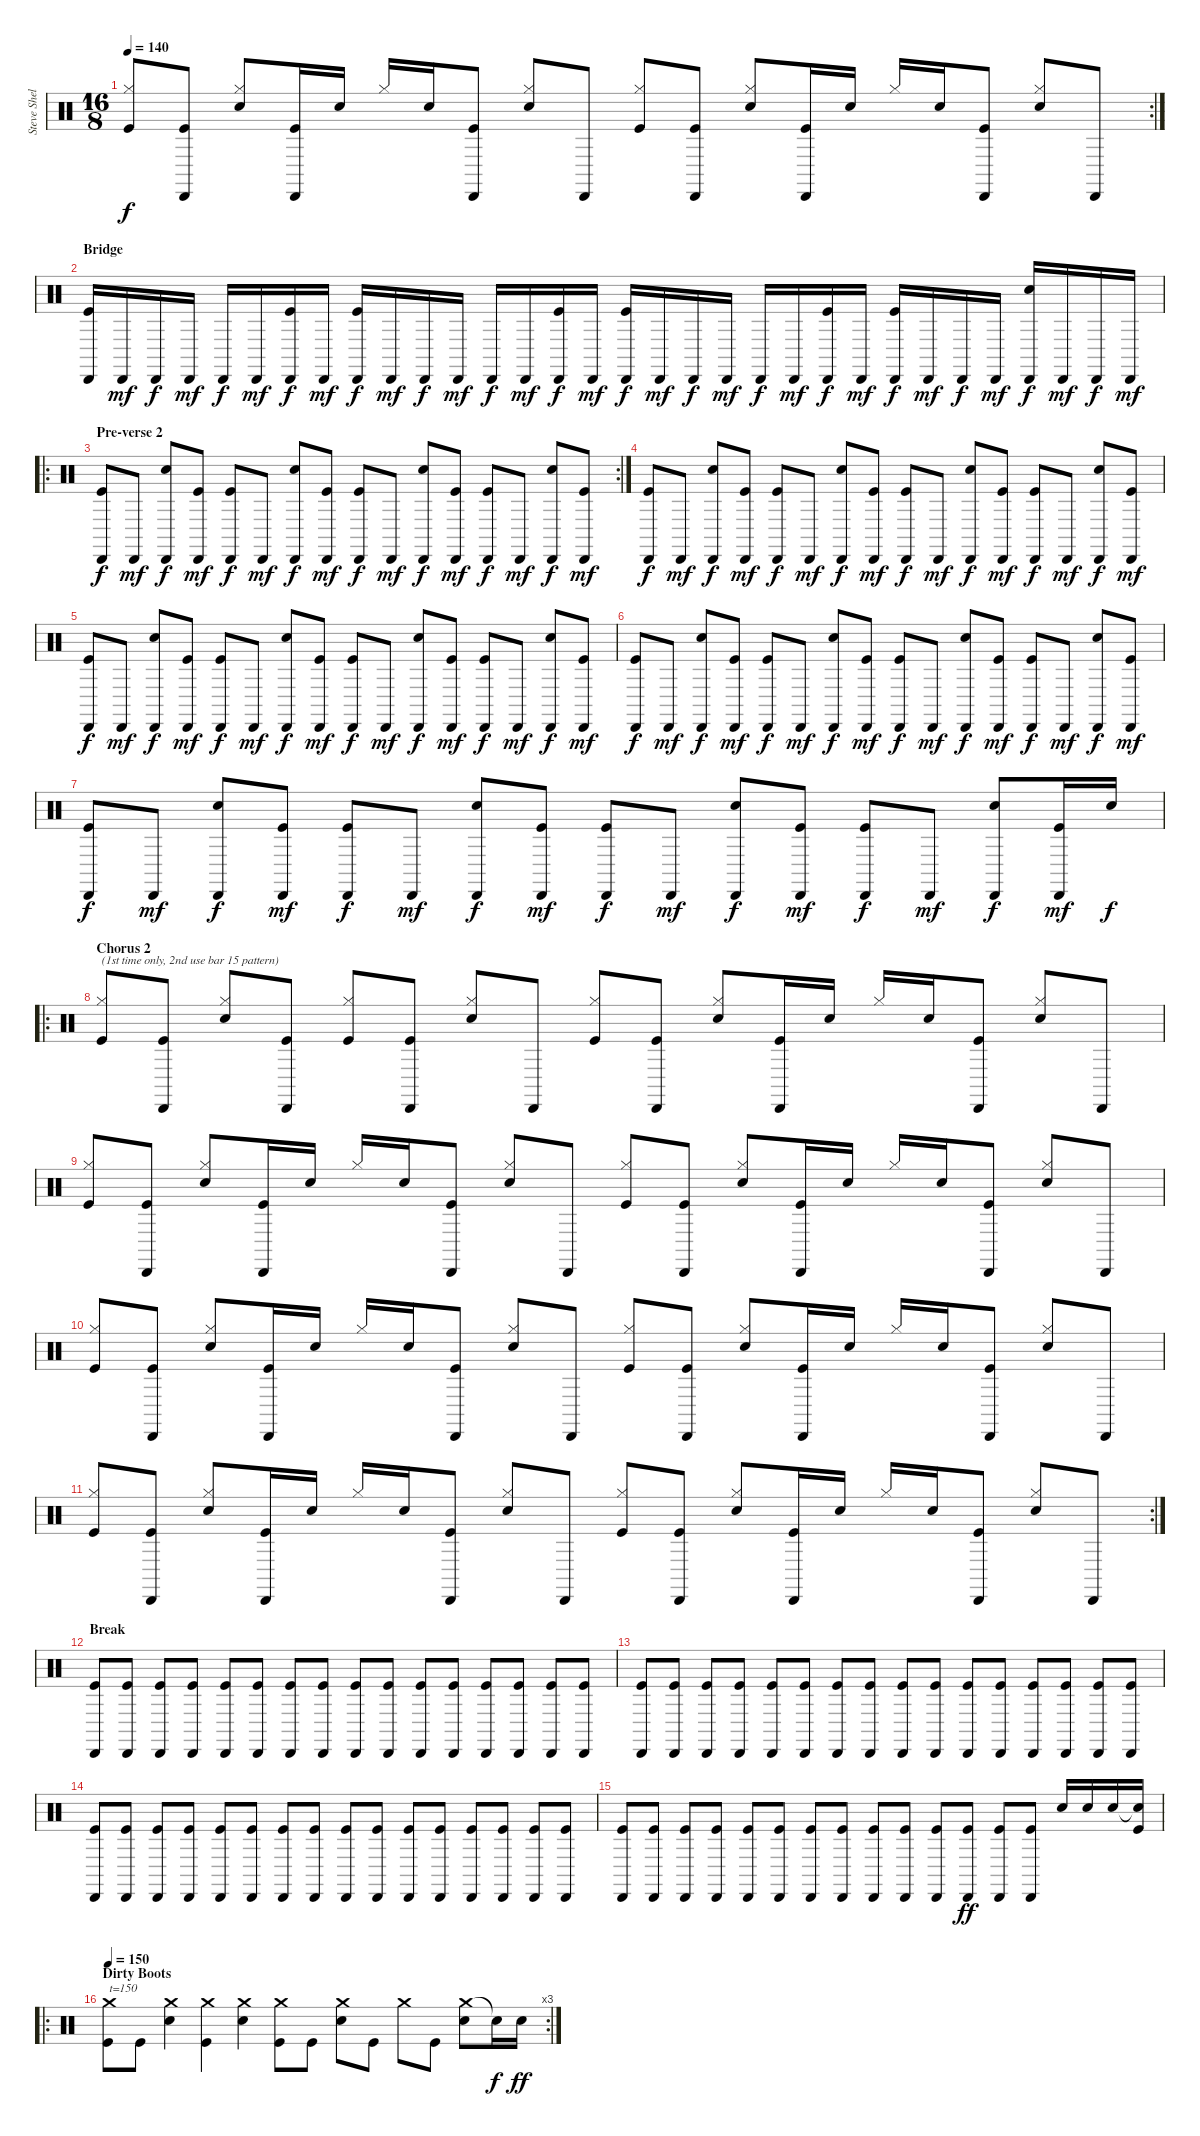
\track ("Steve Shelley" "Steve Shel") {instrument percussion}
\staff {score}
\articulation defaults
\rc 2
\ts (16 8)
\tempo 140
\clef neutral
\ks c
("Hi-Hat (closed)" "Kick (hit)").8{dy f} ("Cabasa (hit)" "Kick (hit)").8 ("Hi-Hat (closed)" "Electric Snare (hit)").8 ("Cabasa (hit)" "Kick (hit)").16 "Electric Snare (hit)".16 "Hi-Hat (closed)".16 "Electric Snare (hit)".16 ("Cabasa (hit)" "Kick (hit)").8 ("Hi-Hat (closed)" "Electric Snare (hit)").8 "Cabasa (hit)".8 ("Hi-Hat (closed)" "Kick (hit)").8 ("Cabasa (hit)" "Kick (hit)").8 ("Hi-Hat (closed)" "Electric Snare (hit)").8 ("Cabasa (hit)" "Kick (hit)").16 "Electric Snare (hit)".16 "Hi-Hat (closed)".16 "Electric Snare (hit)".16 ("Cabasa (hit)" "Kick (hit)").8 ("Hi-Hat (closed)" "Electric Snare (hit)").8 "Cabasa (hit)".8 |
\section ("" "Bridge")
("Cabasa (hit)" "Kick (hit)").16 "Cabasa (hit)".16{dy mf} "Cabasa (hit)".16{dy f} "Cabasa (hit)".16{dy mf} "Cabasa (hit)".16{dy f} "Cabasa (hit)".16{dy mf} ("Cabasa (hit)" "Kick (hit)").16{dy f} "Cabasa (hit)".16{dy mf} ("Cabasa (hit)" "Kick (hit)").16{dy f} "Cabasa (hit)".16{dy mf} "Cabasa (hit)".16{dy f} "Cabasa (hit)".16{dy mf} "Cabasa (hit)".16{dy f} "Cabasa (hit)".16{dy mf} ("Cabasa (hit)" "Kick (hit)").16{dy f} "Cabasa (hit)".16{dy mf} ("Cabasa (hit)" "Kick (hit)").16{dy f} "Cabasa (hit)".16{dy mf} "Cabasa (hit)".16{dy f} "Cabasa (hit)".16{dy mf} "Cabasa (hit)".16{dy f} "Cabasa (hit)".16{dy mf} ("Cabasa (hit)" "Kick (hit)").16{dy f} "Cabasa (hit)".16{dy mf} ("Cabasa (hit)" "Kick (hit)").16{dy f} "Cabasa (hit)".16{dy mf} "Cabasa (hit)".16{dy f} "Cabasa (hit)".16{dy mf} ("Cabasa (hit)" "Electric Snare (hit)").16{dy f} "Cabasa (hit)".16{dy mf} "Cabasa (hit)".16{dy f} "Cabasa (hit)".16{dy mf} |
\ro
\rc 2
\section ("" "Pre-verse 2")
("Cabasa (hit)" "Kick (hit)").8{dy f} "Cabasa (hit)".8{dy mf} ("Cabasa (hit)" "Electric Snare (hit)").8{dy f} ("Cabasa (hit)" "Kick (hit)").8{dy mf} ("Cabasa (hit)" "Kick (hit)").8{dy f} "Cabasa (hit)".8{dy mf} ("Cabasa (hit)" "Electric Snare (hit)").8{dy f} ("Cabasa (hit)" "Kick (hit)").8{dy mf} ("Cabasa (hit)" "Kick (hit)").8{dy f} "Cabasa (hit)".8{dy mf} ("Cabasa (hit)" "Electric Snare (hit)").8{dy f} ("Cabasa (hit)" "Kick (hit)").8{dy mf} ("Cabasa (hit)" "Kick (hit)").8{dy f} "Cabasa (hit)".8{dy mf} ("Cabasa (hit)" "Electric Snare (hit)").8{dy f} ("Cabasa (hit)" "Kick (hit)").8{dy mf} |
("Cabasa (hit)" "Kick (hit)").8{dy f} "Cabasa (hit)".8{dy mf} ("Cabasa (hit)" "Electric Snare (hit)").8{dy f} ("Cabasa (hit)" "Kick (hit)").8{dy mf} ("Cabasa (hit)" "Kick (hit)").8{dy f} "Cabasa (hit)".8{dy mf} ("Cabasa (hit)" "Electric Snare (hit)").8{dy f} ("Cabasa (hit)" "Kick (hit)").8{dy mf} ("Cabasa (hit)" "Kick (hit)").8{dy f} "Cabasa (hit)".8{dy mf} ("Cabasa (hit)" "Electric Snare (hit)").8{dy f} ("Cabasa (hit)" "Kick (hit)").8{dy mf} ("Cabasa (hit)" "Kick (hit)").8{dy f} "Cabasa (hit)".8{dy mf} ("Cabasa (hit)" "Electric Snare (hit)").8{dy f} ("Cabasa (hit)" "Kick (hit)").8{dy mf} |
("Cabasa (hit)" "Kick (hit)").8{dy f} "Cabasa (hit)".8{dy mf} ("Cabasa (hit)" "Electric Snare (hit)").8{dy f} ("Cabasa (hit)" "Kick (hit)").8{dy mf} ("Cabasa (hit)" "Kick (hit)").8{dy f} "Cabasa (hit)".8{dy mf} ("Cabasa (hit)" "Electric Snare (hit)").8{dy f} ("Cabasa (hit)" "Kick (hit)").8{dy mf} ("Cabasa (hit)" "Kick (hit)").8{dy f} "Cabasa (hit)".8{dy mf} ("Cabasa (hit)" "Electric Snare (hit)").8{dy f} ("Cabasa (hit)" "Kick (hit)").8{dy mf} ("Cabasa (hit)" "Kick (hit)").8{dy f} "Cabasa (hit)".8{dy mf} ("Cabasa (hit)" "Electric Snare (hit)").8{dy f} ("Cabasa (hit)" "Kick (hit)").8{dy mf} |
("Cabasa (hit)" "Kick (hit)").8{dy f} "Cabasa (hit)".8{dy mf} ("Cabasa (hit)" "Electric Snare (hit)").8{dy f} ("Cabasa (hit)" "Kick (hit)").8{dy mf} ("Cabasa (hit)" "Kick (hit)").8{dy f} "Cabasa (hit)".8{dy mf} ("Cabasa (hit)" "Electric Snare (hit)").8{dy f} ("Cabasa (hit)" "Kick (hit)").8{dy mf} ("Cabasa (hit)" "Kick (hit)").8{dy f} "Cabasa (hit)".8{dy mf} ("Cabasa (hit)" "Electric Snare (hit)").8{dy f} ("Cabasa (hit)" "Kick (hit)").8{dy mf} ("Cabasa (hit)" "Kick (hit)").8{dy f} "Cabasa (hit)".8{dy mf} ("Cabasa (hit)" "Electric Snare (hit)").8{dy f} ("Cabasa (hit)" "Kick (hit)").8{dy mf} |
("Cabasa (hit)" "Kick (hit)").8{dy f} "Cabasa (hit)".8{dy mf} ("Cabasa (hit)" "Electric Snare (hit)").8{dy f} ("Cabasa (hit)" "Kick (hit)").8{dy mf} ("Cabasa (hit)" "Kick (hit)").8{dy f} "Cabasa (hit)".8{dy mf} ("Cabasa (hit)" "Electric Snare (hit)").8{dy f} ("Cabasa (hit)" "Kick (hit)").8{dy mf} ("Cabasa (hit)" "Kick (hit)").8{dy f} "Cabasa (hit)".8{dy mf} ("Cabasa (hit)" "Electric Snare (hit)").8{dy f} ("Cabasa (hit)" "Kick (hit)").8{dy mf} ("Cabasa (hit)" "Kick (hit)").8{dy f} "Cabasa (hit)".8{dy mf} ("Cabasa (hit)" "Electric Snare (hit)").8{dy f} ("Cabasa (hit)" "Kick (hit)").16{dy mf} "Electric Snare (hit)".16{dy f} |
\ro
\section ("" "Chorus 2")
("Hi-Hat (closed)" "Kick (hit)").8{txt "(1st time only, 2nd use bar 15 pattern)"} ("Cabasa (hit)" "Kick (hit)").8 ("Hi-Hat (closed)" "Electric Snare (hit)").8 ("Cabasa (hit)" "Kick (hit)").8 ("Hi-Hat (closed)" "Kick (hit)").8 ("Cabasa (hit)" "Kick (hit)").8 ("Hi-Hat (closed)" "Electric Snare (hit)").8 "Cabasa (hit)".8 ("Hi-Hat (closed)" "Kick (hit)").8 ("Cabasa (hit)" "Kick (hit)").8 ("Hi-Hat (closed)" "Electric Snare (hit)").8 ("Cabasa (hit)" "Kick (hit)").16 "Electric Snare (hit)".16 "Hi-Hat (closed)".16 "Electric Snare (hit)".16 ("Cabasa (hit)" "Kick (hit)").8 ("Hi-Hat (closed)" "Electric Snare (hit)").8 "Cabasa (hit)".8 |
("Hi-Hat (closed)" "Kick (hit)").8 ("Cabasa (hit)" "Kick (hit)").8 ("Hi-Hat (closed)" "Electric Snare (hit)").8 ("Cabasa (hit)" "Kick (hit)").16 "Electric Snare (hit)".16 "Hi-Hat (closed)".16 "Electric Snare (hit)".16 ("Cabasa (hit)" "Kick (hit)").8 ("Hi-Hat (closed)" "Electric Snare (hit)").8 "Cabasa (hit)".8 ("Hi-Hat (closed)" "Kick (hit)").8 ("Cabasa (hit)" "Kick (hit)").8 ("Hi-Hat (closed)" "Electric Snare (hit)").8 ("Cabasa (hit)" "Kick (hit)").16 "Electric Snare (hit)".16 "Hi-Hat (closed)".16 "Electric Snare (hit)".16 ("Cabasa (hit)" "Kick (hit)").8 ("Hi-Hat (closed)" "Electric Snare (hit)").8 "Cabasa (hit)".8 |
("Hi-Hat (closed)" "Kick (hit)").8 ("Cabasa (hit)" "Kick (hit)").8 ("Hi-Hat (closed)" "Electric Snare (hit)").8 ("Cabasa (hit)" "Kick (hit)").16 "Electric Snare (hit)".16 "Hi-Hat (closed)".16 "Electric Snare (hit)".16 ("Cabasa (hit)" "Kick (hit)").8 ("Hi-Hat (closed)" "Electric Snare (hit)").8 "Cabasa (hit)".8 ("Hi-Hat (closed)" "Kick (hit)").8 ("Cabasa (hit)" "Kick (hit)").8 ("Hi-Hat (closed)" "Electric Snare (hit)").8 ("Cabasa (hit)" "Kick (hit)").16 "Electric Snare (hit)".16 "Hi-Hat (closed)".16 "Electric Snare (hit)".16 ("Cabasa (hit)" "Kick (hit)").8 ("Hi-Hat (closed)" "Electric Snare (hit)").8 "Cabasa (hit)".8 |
\rc 2
("Hi-Hat (closed)" "Kick (hit)").8 ("Cabasa (hit)" "Kick (hit)").8 ("Hi-Hat (closed)" "Electric Snare (hit)").8 ("Cabasa (hit)" "Kick (hit)").16 "Electric Snare (hit)".16 "Hi-Hat (closed)".16 "Electric Snare (hit)".16 ("Cabasa (hit)" "Kick (hit)").8 ("Hi-Hat (closed)" "Electric Snare (hit)").8 "Cabasa (hit)".8 ("Hi-Hat (closed)" "Kick (hit)").8 ("Cabasa (hit)" "Kick (hit)").8 ("Hi-Hat (closed)" "Electric Snare (hit)").8 ("Cabasa (hit)" "Kick (hit)").16 "Electric Snare (hit)".16 "Hi-Hat (closed)".16 "Electric Snare (hit)".16 ("Cabasa (hit)" "Kick (hit)").8 ("Hi-Hat (closed)" "Electric Snare (hit)").8 "Cabasa (hit)".8 |
\section ("" "Break")
("Cabasa (hit)" "Kick (hit)").8 ("Cabasa (hit)" "Kick (hit)").8 ("Cabasa (hit)" "Kick (hit)").8 ("Cabasa (hit)" "Kick (hit)").8 ("Cabasa (hit)" "Kick (hit)").8 ("Cabasa (hit)" "Kick (hit)").8 ("Cabasa (hit)" "Kick (hit)").8 ("Cabasa (hit)" "Kick (hit)").8 ("Cabasa (hit)" "Kick (hit)").8 ("Cabasa (hit)" "Kick (hit)").8 ("Cabasa (hit)" "Kick (hit)").8 ("Cabasa (hit)" "Kick (hit)").8 ("Cabasa (hit)" "Kick (hit)").8 ("Cabasa (hit)" "Kick (hit)").8 ("Cabasa (hit)" "Kick (hit)").8 ("Cabasa (hit)" "Kick (hit)").8 |
("Cabasa (hit)" "Kick (hit)").8 ("Cabasa (hit)" "Kick (hit)").8 ("Cabasa (hit)" "Kick (hit)").8 ("Cabasa (hit)" "Kick (hit)").8 ("Cabasa (hit)" "Kick (hit)").8 ("Cabasa (hit)" "Kick (hit)").8 ("Cabasa (hit)" "Kick (hit)").8 ("Cabasa (hit)" "Kick (hit)").8 ("Cabasa (hit)" "Kick (hit)").8 ("Cabasa (hit)" "Kick (hit)").8 ("Cabasa (hit)" "Kick (hit)").8 ("Cabasa (hit)" "Kick (hit)").8 ("Cabasa (hit)" "Kick (hit)").8 ("Cabasa (hit)" "Kick (hit)").8 ("Cabasa (hit)" "Kick (hit)").8 ("Cabasa (hit)" "Kick (hit)").8 |
("Cabasa (hit)" "Kick (hit)").8 ("Cabasa (hit)" "Kick (hit)").8 ("Cabasa (hit)" "Kick (hit)").8 ("Cabasa (hit)" "Kick (hit)").8 ("Cabasa (hit)" "Kick (hit)").8 ("Cabasa (hit)" "Kick (hit)").8 ("Cabasa (hit)" "Kick (hit)").8 ("Cabasa (hit)" "Kick (hit)").8 ("Cabasa (hit)" "Kick (hit)").8 ("Cabasa (hit)" "Kick (hit)").8 ("Cabasa (hit)" "Kick (hit)").8 ("Cabasa (hit)" "Kick (hit)").8 ("Cabasa (hit)" "Kick (hit)").8 ("Cabasa (hit)" "Kick (hit)").8 ("Cabasa (hit)" "Kick (hit)").8 ("Cabasa (hit)" "Kick (hit)").8 |
("Cabasa (hit)" "Kick (hit)").8 ("Cabasa (hit)" "Kick (hit)").8 ("Cabasa (hit)" "Kick (hit)").8 ("Cabasa (hit)" "Kick (hit)").8 ("Cabasa (hit)" "Kick (hit)").8 ("Cabasa (hit)" "Kick (hit)").8 ("Cabasa (hit)" "Kick (hit)").8 ("Cabasa (hit)" "Kick (hit)").8 ("Cabasa (hit)" "Kick (hit)").8 ("Cabasa (hit)" "Kick (hit)").8 ("Cabasa (hit)" "Kick (hit)").8 ("Cabasa (hit)" "Kick (hit)").8{dy ff} ("Cabasa (hit)" "Kick (hit)").8 ("Cabasa (hit)" "Kick (hit)").8 "Electric Snare (hit)".16 "Electric Snare (hit)".16 "Electric Snare (hit)".16 ("Snare (hit)"{t} "Kick (hit)").16 |
\ro
\rc 3
\section ("" "Dirty Boots")
\tempo 150
("Crash medium (hit)" "Kick (hit)").8{txt "t=150"} "Kick (hit)".8 ("Crash medium (hit)" "Electric Snare (hit)").4 ("Crash medium (hit)" "Kick (hit)").4 ("Crash medium (hit)" "Electric Snare (hit)").4 ("Crash medium (hit)" "Kick (hit)").8 "Kick (hit)".8 ("Crash medium (hit)" "Electric Snare (hit)").8 "Kick (hit)".8 "Crash medium (hit)".8 "Kick (hit)".8 ("Crash medium (hit)" "Electric Snare (hit)").8 "Electric Snare (hit)"{t}.16{dy f} "Electric Snare (hit)".16{dy ff}
